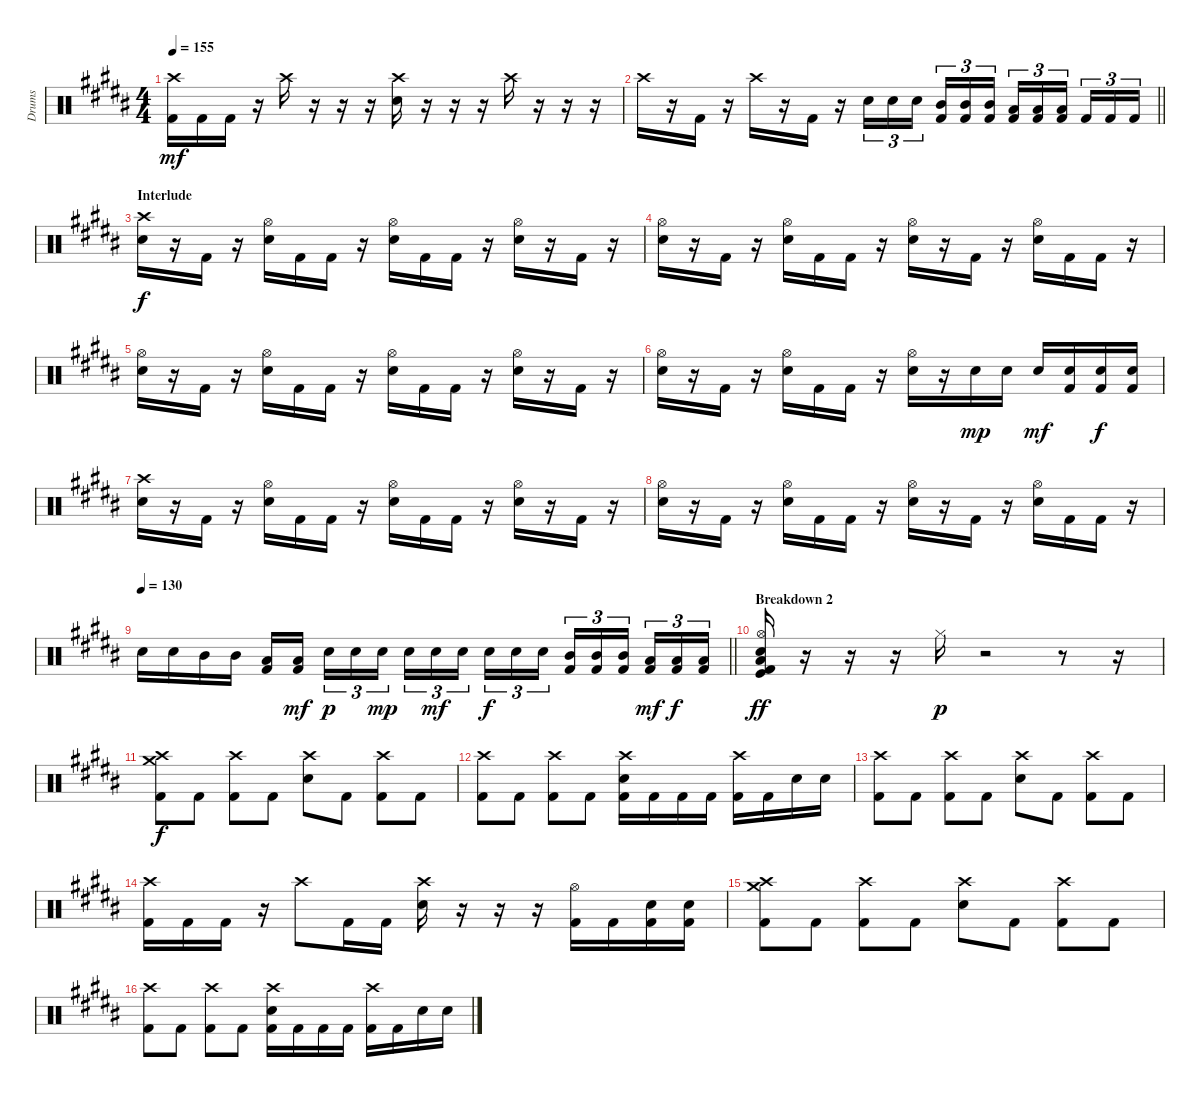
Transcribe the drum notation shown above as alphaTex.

\track ("Drums" "Drums") {instrument percussion}
\staff {score}
\articulation defaults
\ts (4 4)
\tempo 155
\clef neutral
\ks g#minor
("Crash high (hit)" "Kick (hit) 2").16{dy mf} "Kick (hit) 2".16 "Kick (hit) 2".16 r.16 "Crash high (hit)".16 r.16 r.16 r.16 ("Crash high (hit)" "Electric Snare (hit)").16 r.16 r.16 r.16 "Crash high (hit)".16 r.16 r.16 r.16 |
\barLineRight lightlight "Crash high (hit)".16
r.16 "Kick (hit) 2".16 r.16 "Crash high (hit)".16 r.16 "Kick (hit) 2".16 r.16 "Electric Snare (hit)".16{tu (3 2)} "Electric Snare (hit)".16{tu (3 2)} "Electric Snare (hit)".16{tu (3 2) beam splitsecondary} ("Mid Tom (hit)" "Kick (hit) 2").16{tu (3 2)} ("Mid Tom (hit)" "Kick (hit) 2").16{tu (3 2)} ("Mid Tom (hit)" "Kick (hit) 2").16{tu (3 2)} ("Low Floor Tom (hit)" "Kick (hit) 2").16{tu (3 2)} ("Low Floor Tom (hit)" "Kick (hit) 2").16{tu (3 2)} ("Low Floor Tom (hit)" "Kick (hit) 2").16{tu (3 2) beam splitsecondary} "Kick (hit) 2".16{tu (3 2)} "Kick (hit) 2".16{tu (3 2)} "Kick (hit) 2".16{tu (3 2)} |
\section ("" "Interlude")
("Crash high (hit)" "Electric Snare (hit)").16{dy f} r.16 "Kick (hit) 2".16 r.16 ("Hi-Hat (open)" "Electric Snare (hit)").16 "Kick (hit) 2".16 "Kick (hit) 2".16 r.16 ("Hi-Hat (open)" "Electric Snare (hit)").16 "Kick (hit) 2".16 "Kick (hit) 2".16 r.16 ("Hi-Hat (open)" "Electric Snare (hit)").16 r.16 "Kick (hit) 2".16 r.16 |
("Hi-Hat (open)" "Electric Snare (hit)").16 r.16 "Kick (hit) 2".16 r.16 ("Hi-Hat (open)" "Electric Snare (hit)").16 "Kick (hit) 2".16 "Kick (hit) 2".16 r.16 ("Hi-Hat (open)" "Electric Snare (hit)").16 r.16 "Kick (hit) 2".16 r.16 ("Hi-Hat (open)" "Electric Snare (hit)").16 "Kick (hit) 2".16 "Kick (hit) 2".16 r.16 |
("Hi-Hat (open)" "Electric Snare (hit)").16 r.16 "Kick (hit) 2".16 r.16 ("Hi-Hat (open)" "Electric Snare (hit)").16 "Kick (hit) 2".16 "Kick (hit) 2".16 r.16 ("Hi-Hat (open)" "Electric Snare (hit)").16 "Kick (hit) 2".16 "Kick (hit) 2".16 r.16 ("Hi-Hat (open)" "Electric Snare (hit)").16 r.16 "Kick (hit) 2".16 r.16 |
("Hi-Hat (open)" "Electric Snare (hit)").16 r.16 "Kick (hit) 2".16 r.16 ("Hi-Hat (open)" "Electric Snare (hit)").16 "Kick (hit) 2".16 "Kick (hit) 2".16 r.16 ("Hi-Hat (open)" "Electric Snare (hit)").16 r.16 "Electric Snare (hit)".16{dy mp} "Electric Snare (hit)".16 "Electric Snare (hit)".16{dy mf} ("Electric Snare (hit)" "Kick (hit) 2").16 ("Electric Snare (hit)" "Kick (hit) 2").16{dy f} ("Electric Snare (hit)" "Kick (hit) 2").16 |
("Crash high (hit)" "Electric Snare (hit)").16 r.16 "Kick (hit) 2".16 r.16 ("Hi-Hat (open)" "Electric Snare (hit)").16 "Kick (hit) 2".16 "Kick (hit) 2".16 r.16 ("Hi-Hat (open)" "Electric Snare (hit)").16 "Kick (hit) 2".16 "Kick (hit) 2".16 r.16 ("Hi-Hat (open)" "Electric Snare (hit)").16 r.16 "Kick (hit) 2".16 r.16 |
("Hi-Hat (open)" "Electric Snare (hit)").16 r.16 "Kick (hit) 2".16 r.16 ("Hi-Hat (open)" "Electric Snare (hit)").16 "Kick (hit) 2".16 "Kick (hit) 2".16 r.16 ("Hi-Hat (open)" "Electric Snare (hit)").16 r.16 "Kick (hit) 2".16 r.16 ("Hi-Hat (open)" "Electric Snare (hit)").16 "Kick (hit) 2".16 "Kick (hit) 2".16 r.16 |
\tempo 130
\barLineRight lightlight "Electric Snare (hit)".16 "Electric Snare (hit)".16 "Mid Tom (hit)".16 "Mid Tom (hit)".16
("Low Floor Tom (hit)" "Kick (hit) 2").16 ("Low Floor Tom (hit)" "Kick (hit) 2").16{dy mf beam splitsecondary} "Electric Snare (hit)".16{tu (3 2) dy p} "Electric Snare (hit)".16{tu (3 2)} "Electric Snare (hit)".16{tu (3 2) dy mp} "Electric Snare (hit)".16{tu (3 2)} "Electric Snare (hit)".16{tu (3 2) dy mf} "Electric Snare (hit)".16{tu (3 2) beam splitsecondary} "Electric Snare (hit)".16{tu (3 2) dy f} "Electric Snare (hit)".16{tu (3 2)} "Electric Snare (hit)".16{tu (3 2)} ("Mid Tom (hit)" "Kick (hit) 2").16{tu (3 2)} ("Mid Tom (hit)" "Kick (hit) 2").16{tu (3 2)} ("Mid Tom (hit)" "Kick (hit) 2").16{tu (3 2) beam splitsecondary} ("Low Floor Tom (hit)" "Kick (hit) 2").16{tu (3 2) dy mf} ("Low Floor Tom (hit)" "Kick (hit) 2").16{tu (3 2) dy f} ("Low Floor Tom (hit)" "Kick (hit) 2").16{tu (3 2)} |
\section ("" "Breakdown 2")
("Kick (hit)" "Low Floor Tom (hit)" "Hi-Hat (open)" "Electric Snare (hit)" "Kick (hit) 2").16{dy ff} r.16 r.16 r.16 "Hi-Hat (closed)".16{dy p} r.2 r.8 r.16 |
("Crash high (hit)" "Crash medium (hit)" "Kick (hit) 2").8{dy f} "Kick (hit) 2".8 ("Crash high (hit)" "Kick (hit) 2").8 "Kick (hit) 2".8 ("Crash high (hit)" "Electric Snare (hit)").8 "Kick (hit) 2".8 ("Crash high (hit)" "Kick (hit) 2").8 "Kick (hit) 2".8 |
("Crash high (hit)" "Kick (hit) 2").8 "Kick (hit) 2".8 ("Crash high (hit)" "Kick (hit) 2").8 "Kick (hit) 2".8 ("Crash high (hit)" "Electric Snare (hit)" "Kick (hit) 2").16 "Kick (hit) 2".16 "Kick (hit) 2".16 "Kick (hit) 2".16 ("Crash high (hit)" "Kick (hit) 2").16 "Kick (hit) 2".16 "Electric Snare (hit)".16 "Electric Snare (hit)".16 |
("Crash high (hit)" "Kick (hit) 2").8 "Kick (hit) 2".8 ("Crash high (hit)" "Kick (hit) 2").8 "Kick (hit) 2".8 ("Crash high (hit)" "Electric Snare (hit)").8 "Kick (hit) 2".8 ("Crash high (hit)" "Kick (hit) 2").8 "Kick (hit) 2".8 |
("Crash high (hit)" "Kick (hit) 2").16 "Kick (hit) 2".16 "Kick (hit) 2".16 r.16 "Crash high (hit)".8 "Kick (hit) 2".16 "Kick (hit) 2".16 ("Crash high (hit)" "Electric Snare (hit)").16 r.16 r.16 r.16 ("Hi-Hat (open)" "Kick (hit) 2").16 "Kick (hit) 2".16 ("Electric Snare (hit)" "Kick (hit) 2").16 ("Electric Snare (hit)" "Kick (hit) 2").16 |
("Crash high (hit)" "Crash medium (hit)" "Kick (hit) 2").8 "Kick (hit) 2".8 ("Crash high (hit)" "Kick (hit) 2").8 "Kick (hit) 2".8 ("Crash high (hit)" "Electric Snare (hit)").8 "Kick (hit) 2".8 ("Crash high (hit)" "Kick (hit) 2").8 "Kick (hit) 2".8 |
("Crash high (hit)" "Kick (hit) 2").8 "Kick (hit) 2".8 ("Crash high (hit)" "Kick (hit) 2").8 "Kick (hit) 2".8 ("Crash high (hit)" "Electric Snare (hit)" "Kick (hit) 2").16 "Kick (hit) 2".16 "Kick (hit) 2".16 "Kick (hit) 2".16 ("Crash high (hit)" "Kick (hit) 2").16 "Kick (hit) 2".16 "Electric Snare (hit)".16 "Electric Snare (hit)".16
